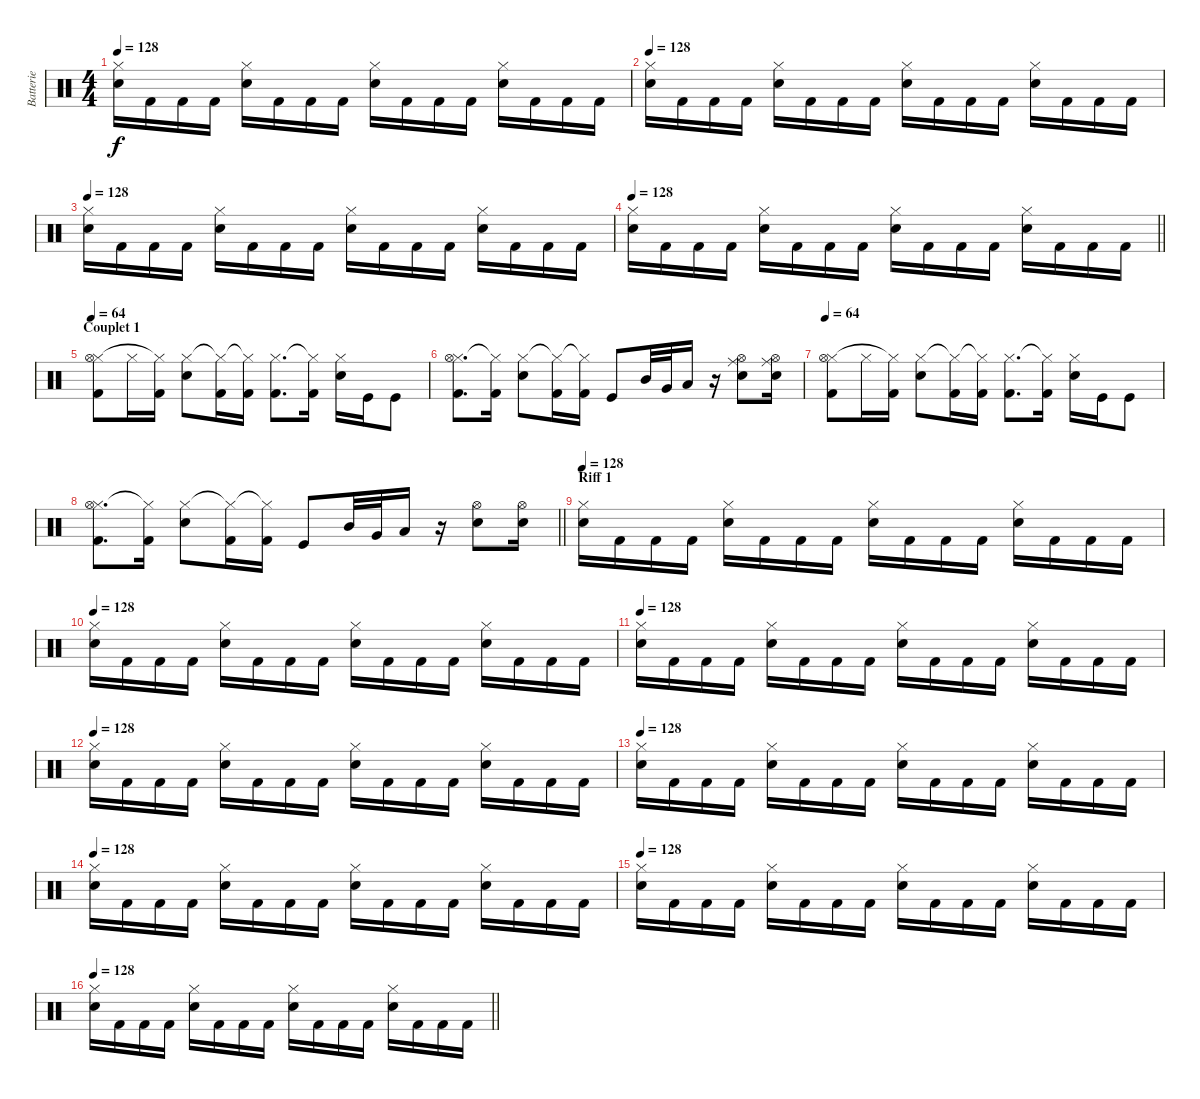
\track ("Batterie" "Batterie") {instrument percussion}
\staff {score}
\articulation defaults
\ts (4 4)
\tempo 128
\clef neutral
\ks c
("Electric Snare (hit)" "Hi-Hat (closed)").16{dy f} "Kick (hit) 2".16 "Kick (hit) 2".16 "Kick (hit) 2".16 ("Hi-Hat (closed)" "Electric Snare (hit)").16 "Kick (hit) 2".16 "Kick (hit) 2".16 "Kick (hit) 2".16 ("Electric Snare (hit)" "Hi-Hat (closed)").16 "Kick (hit) 2".16 "Kick (hit) 2".16 "Kick (hit) 2".16 ("Electric Snare (hit)" "Hi-Hat (closed)").16 "Kick (hit) 2".16 "Kick (hit) 2".16 "Kick (hit) 2".16 |
\tempo 128
("Electric Snare (hit)" "Hi-Hat (closed)").16 "Kick (hit) 2".16 "Kick (hit) 2".16 "Kick (hit) 2".16 ("Hi-Hat (closed)" "Electric Snare (hit)").16 "Kick (hit) 2".16 "Kick (hit) 2".16 "Kick (hit) 2".16 ("Electric Snare (hit)" "Hi-Hat (closed)").16 "Kick (hit) 2".16 "Kick (hit) 2".16 "Kick (hit) 2".16 ("Electric Snare (hit)" "Hi-Hat (closed)").16 "Kick (hit) 2".16 "Kick (hit) 2".16 "Kick (hit) 2".16 |
\tempo 128
("Electric Snare (hit)" "Hi-Hat (closed)").16 "Kick (hit) 2".16 "Kick (hit) 2".16 "Kick (hit) 2".16 ("Hi-Hat (closed)" "Electric Snare (hit)").16 "Kick (hit) 2".16 "Kick (hit) 2".16 "Kick (hit) 2".16 ("Electric Snare (hit)" "Hi-Hat (closed)").16 "Kick (hit) 2".16 "Kick (hit) 2".16 "Kick (hit) 2".16 ("Electric Snare (hit)" "Hi-Hat (closed)").16 "Kick (hit) 2".16 "Kick (hit) 2".16 "Kick (hit) 2".16 |
\tempo 128
\barLineRight lightlight
("Electric Snare (hit)" "Hi-Hat (closed)").16 "Kick (hit) 2".16 "Kick (hit) 2".16 "Kick (hit) 2".16 ("Hi-Hat (closed)" "Electric Snare (hit)").16 "Kick (hit) 2".16 "Kick (hit) 2".16 "Kick (hit) 2".16 ("Electric Snare (hit)" "Hi-Hat (closed)").16 "Kick (hit) 2".16 "Kick (hit) 2".16 "Kick (hit) 2".16 ("Electric Snare (hit)" "Hi-Hat (closed)").16 "Kick (hit) 2".16 "Kick (hit) 2".16 "Kick (hit) 2".16 |
\section ("" "Couplet 1")
\tempo 64
("Kick (hit) 2" "Hi-Hat (closed)" "Hi-Hat (open)").8 "Hi-Hat (closed)".16 ("Kick (hit) 2" "Hi-Hat (closed)"{t}).16 ("Electric Snare (hit)" "Hi-Hat (closed)").8 ("Kick (hit) 2" "Hi-Hat (closed)"{t}).16 ("Kick (hit) 2" "Hi-Hat (closed)"{t}).16 ("Kick (hit) 2" "Hi-Hat (closed)").8{d} ("Kick (hit) 2" "Hi-Hat (closed)"{t}).16 ("Electric Snare (hit)" "Hi-Hat (closed)").16 "Kick (hit)".16 "Kick (hit)".8 |
("Kick (hit) 2" "Hi-Hat (closed)" "Hi-Hat (open)").8{d} ("Kick (hit) 2" "Hi-Hat (closed)"{t}).16 ("Electric Snare (hit)" "Hi-Hat (closed)").8 ("Kick (hit) 2" "Hi-Hat (closed)"{t}).16 ("Kick (hit) 2" "Hi-Hat (closed)"{t}).16 "Kick (hit)".8 "Mid Tom (hit)".32 "Very Low Tom (hit)".32 "Low Tom (hit)".16 r.16 ("Snare (hit) 2" "Ride (middle)" "Hi-Hat (open)").8 ("Snare (hit) 2" "Ride (middle)" "Hi-Hat (open)").16 |
\tempo 64
("Kick (hit) 2" "Hi-Hat (closed)" "Hi-Hat (open)").8 "Hi-Hat (closed)".16 ("Kick (hit) 2" "Hi-Hat (closed)"{t}).16 ("Electric Snare (hit)" "Hi-Hat (closed)").8 ("Kick (hit) 2" "Hi-Hat (closed)"{t}).16 ("Kick (hit) 2" "Hi-Hat (closed)"{t}).16 ("Kick (hit) 2" "Hi-Hat (closed)").8{d} ("Kick (hit) 2" "Hi-Hat (closed)"{t}).16 ("Electric Snare (hit)" "Hi-Hat (closed)").16 "Kick (hit)".16 "Kick (hit)".8 |
\barLineRight lightlight
("Kick (hit) 2" "Hi-Hat (closed)" "Hi-Hat (open)").8{d} ("Kick (hit) 2" "Hi-Hat (closed)"{t}).16 ("Electric Snare (hit)" "Hi-Hat (closed)").8 ("Kick (hit) 2" "Hi-Hat (closed)"{t}).16 ("Kick (hit) 2" "Hi-Hat (closed)"{t}).16 "Kick (hit)".8 "Mid Tom (hit)".32 "Very Low Tom (hit)".32 "Low Tom (hit)".16 r.16 ("Snare (hit) 2" "Hi-Hat (open)").8 ("Snare (hit) 2" "Hi-Hat (open)").16 |
\section ("" "Riff 1")
\tempo 128
("Electric Snare (hit)" "Hi-Hat (closed)").16 "Kick (hit) 2".16 "Kick (hit) 2".16 "Kick (hit) 2".16 ("Hi-Hat (closed)" "Electric Snare (hit)").16 "Kick (hit) 2".16 "Kick (hit) 2".16 "Kick (hit) 2".16 ("Electric Snare (hit)" "Hi-Hat (closed)").16 "Kick (hit) 2".16 "Kick (hit) 2".16 "Kick (hit) 2".16 ("Electric Snare (hit)" "Hi-Hat (closed)").16 "Kick (hit) 2".16 "Kick (hit) 2".16 "Kick (hit) 2".16 |
\tempo 128
("Electric Snare (hit)" "Hi-Hat (closed)").16 "Kick (hit) 2".16 "Kick (hit) 2".16 "Kick (hit) 2".16 ("Hi-Hat (closed)" "Electric Snare (hit)").16 "Kick (hit) 2".16 "Kick (hit) 2".16 "Kick (hit) 2".16 ("Electric Snare (hit)" "Hi-Hat (closed)").16 "Kick (hit) 2".16 "Kick (hit) 2".16 "Kick (hit) 2".16 ("Electric Snare (hit)" "Hi-Hat (closed)").16 "Kick (hit) 2".16 "Kick (hit) 2".16 "Kick (hit) 2".16 |
\tempo 128
("Electric Snare (hit)" "Hi-Hat (closed)").16 "Kick (hit) 2".16 "Kick (hit) 2".16 "Kick (hit) 2".16 ("Hi-Hat (closed)" "Electric Snare (hit)").16 "Kick (hit) 2".16 "Kick (hit) 2".16 "Kick (hit) 2".16 ("Electric Snare (hit)" "Hi-Hat (closed)").16 "Kick (hit) 2".16 "Kick (hit) 2".16 "Kick (hit) 2".16 ("Electric Snare (hit)" "Hi-Hat (closed)").16 "Kick (hit) 2".16 "Kick (hit) 2".16 "Kick (hit) 2".16 |
\tempo 128
("Electric Snare (hit)" "Hi-Hat (closed)").16 "Kick (hit) 2".16 "Kick (hit) 2".16 "Kick (hit) 2".16 ("Hi-Hat (closed)" "Electric Snare (hit)").16 "Kick (hit) 2".16 "Kick (hit) 2".16 "Kick (hit) 2".16 ("Electric Snare (hit)" "Hi-Hat (closed)").16 "Kick (hit) 2".16 "Kick (hit) 2".16 "Kick (hit) 2".16 ("Electric Snare (hit)" "Hi-Hat (closed)").16 "Kick (hit) 2".16 "Kick (hit) 2".16 "Kick (hit) 2".16 |
\tempo 128
("Electric Snare (hit)" "Hi-Hat (closed)").16 "Kick (hit) 2".16 "Kick (hit) 2".16 "Kick (hit) 2".16 ("Hi-Hat (closed)" "Electric Snare (hit)").16 "Kick (hit) 2".16 "Kick (hit) 2".16 "Kick (hit) 2".16 ("Electric Snare (hit)" "Hi-Hat (closed)").16 "Kick (hit) 2".16 "Kick (hit) 2".16 "Kick (hit) 2".16 ("Electric Snare (hit)" "Hi-Hat (closed)").16 "Kick (hit) 2".16 "Kick (hit) 2".16 "Kick (hit) 2".16 |
\tempo 128
("Electric Snare (hit)" "Hi-Hat (closed)").16 "Kick (hit) 2".16 "Kick (hit) 2".16 "Kick (hit) 2".16 ("Hi-Hat (closed)" "Electric Snare (hit)").16 "Kick (hit) 2".16 "Kick (hit) 2".16 "Kick (hit) 2".16 ("Electric Snare (hit)" "Hi-Hat (closed)").16 "Kick (hit) 2".16 "Kick (hit) 2".16 "Kick (hit) 2".16 ("Electric Snare (hit)" "Hi-Hat (closed)").16 "Kick (hit) 2".16 "Kick (hit) 2".16 "Kick (hit) 2".16 |
\tempo 128
("Electric Snare (hit)" "Hi-Hat (closed)").16 "Kick (hit) 2".16 "Kick (hit) 2".16 "Kick (hit) 2".16 ("Hi-Hat (closed)" "Electric Snare (hit)").16 "Kick (hit) 2".16 "Kick (hit) 2".16 "Kick (hit) 2".16 ("Electric Snare (hit)" "Hi-Hat (closed)").16 "Kick (hit) 2".16 "Kick (hit) 2".16 "Kick (hit) 2".16 ("Electric Snare (hit)" "Hi-Hat (closed)").16 "Kick (hit) 2".16 "Kick (hit) 2".16 "Kick (hit) 2".16 |
\tempo 128
\barLineRight lightlight
("Electric Snare (hit)" "Hi-Hat (closed)").16 "Kick (hit) 2".16 "Kick (hit) 2".16 "Kick (hit) 2".16 ("Hi-Hat (closed)" "Electric Snare (hit)").16 "Kick (hit) 2".16 "Kick (hit) 2".16 "Kick (hit) 2".16 ("Electric Snare (hit)" "Hi-Hat (closed)").16 "Kick (hit) 2".16 "Kick (hit) 2".16 "Kick (hit) 2".16 ("Electric Snare (hit)" "Hi-Hat (closed)").16 "Kick (hit) 2".16 "Kick (hit) 2".16 "Kick (hit) 2".16
